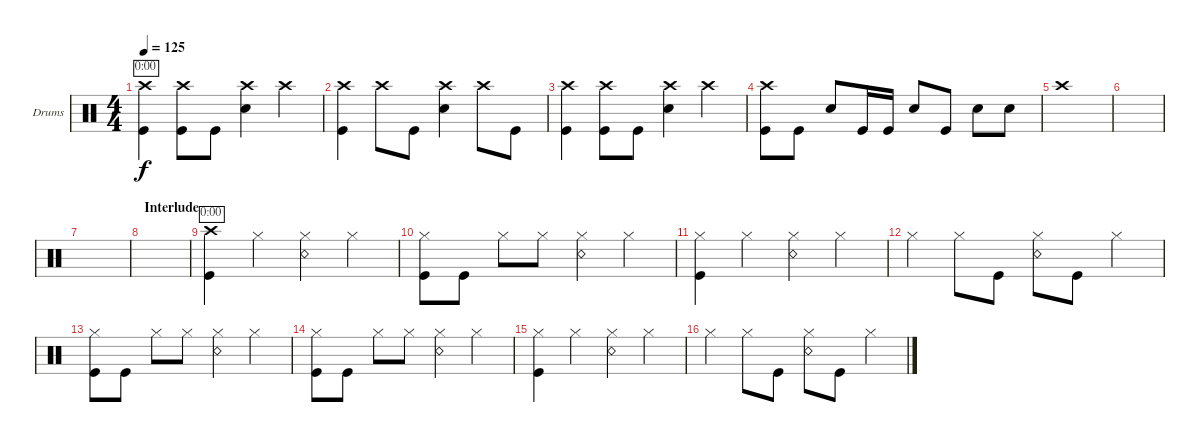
\defaultSystemsLayout 4
\bracketExtendMode groupsimilarinstruments
\firstSystemTrackNameOrientation horizontal
\otherSystemsTrackNameOrientation horizontal
\track ("Drumkit" "Drums") {instrument percussion}
\staff {score}
\articulation defaults
\ts (4 4)
\tempo 125
\clef neutral
\scale
0.333333
\ks c
("Kick (hit)" "Crash high (hit)").4{dy f timer} ("Kick (hit)" "Crash high (hit)").8 "Kick (hit)".8 ("Snare (hit) 2" "Crash high (hit)").4 "Crash high (hit)".4 |
\scale
0.333333 ("Crash high (hit)" "Kick (hit)").4 "Crash high (hit)".8 "Kick (hit)".8 ("Snare (hit) 2" "Crash high (hit)").4 "Crash high (hit)".8 "Kick (hit)".8 |
\scale
0.333333 ("Crash high (hit)" "Kick (hit)").4 ("Kick (hit)" "Crash high (hit)").8 "Kick (hit)".8 ("Snare (hit) 2" "Crash high (hit)").4 "Crash high (hit)".4 |
\scale
0.333333 ("Kick (hit)" "Crash high (hit)").8 "Kick (hit)".8 "Snare (hit) 2".8 "Kick (hit)".16 "Kick (hit)".16 "Snare (hit) 2".8 "Kick (hit)".8 "Snare (hit) 2".8 "Snare (hit) 2".8 |
\scale
0.333333 "Crash high (hit)".1 |
\scale
0.333333 |
\scale
0.333333 |
\section ("" "Interlude")
\scale
0.333333 |
\scale
0.333333 ("Crash high (hit)" "Kick (hit)").4{timer} "Hi-Hat (closed)".4 ("Hi-Hat (closed)" "Snare (rim shot)").4 "Hi-Hat (closed)".4 |
\scale
0.333333 ("Kick (hit)" "Hi-Hat (closed)").8 "Kick (hit)".8 "Hi-Hat (closed)".8 "Hi-Hat (closed)".8 ("Hi-Hat (closed)" "Snare (rim shot)").4 "Hi-Hat (closed)".4 |
\scale
0.333333 ("Hi-Hat (closed)" "Kick (hit)").4 "Hi-Hat (closed)".4 ("Hi-Hat (closed)" "Snare (rim shot)").4 "Hi-Hat (closed)".4 |
\scale
0.333333 "Hi-Hat (closed)".4 "Hi-Hat (closed)".8 "Kick (hit)".8 ("Snare (rim shot)" "Hi-Hat (closed)").8 "Kick (hit)".8 "Hi-Hat (closed)".4 |
\scale
0.333333 ("Kick (hit)" "Hi-Hat (closed)").8 "Kick (hit)".8 "Hi-Hat (closed)".8 "Hi-Hat (closed)".8 ("Hi-Hat (closed)" "Snare (rim shot)").4 "Hi-Hat (closed)".4 |
\scale
0.333333 ("Kick (hit)" "Hi-Hat (closed)").8 "Kick (hit)".8 "Hi-Hat (closed)".8 "Hi-Hat (closed)".8 ("Hi-Hat (closed)" "Snare (rim shot)").4 "Hi-Hat (closed)".4 |
\scale
0.333333 ("Hi-Hat (closed)" "Kick (hit)").4 "Hi-Hat (closed)".4 ("Hi-Hat (closed)" "Snare (rim shot)").4 "Hi-Hat (closed)".4 |
\scale
0.333333 "Hi-Hat (closed)".4 "Hi-Hat (closed)".8 "Kick (hit)".8 ("Snare (rim shot)" "Hi-Hat (closed)").8 "Kick (hit)".8 "Hi-Hat (closed)".4
